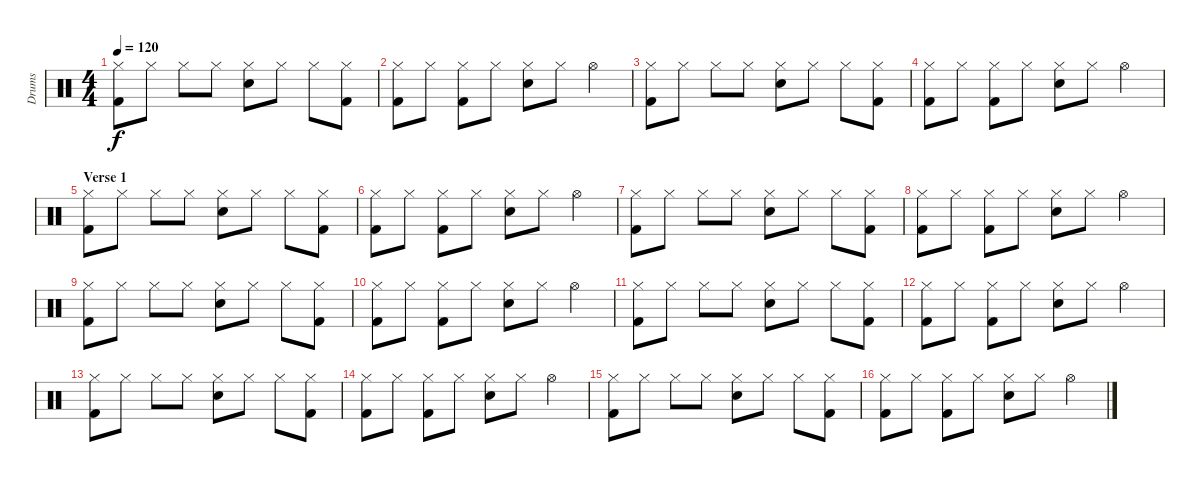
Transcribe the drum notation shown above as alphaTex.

\track ("Drums" "Drums") {instrument percussion}
\staff {score}
\articulation defaults
\ts (4 4)
\tempo 120
\clef neutral
\ks c
("Hi-Hat (closed)" "Kick (hit) 2").8{dy f} "Hi-Hat (closed)".8 "Hi-Hat (closed)".8 "Hi-Hat (closed)".8 ("Hi-Hat (closed)" "Electric Snare (hit)").8 "Hi-Hat (closed)".8 "Hi-Hat (closed)".8 ("Hi-Hat (closed)" "Kick (hit) 2").8 |
("Hi-Hat (closed)" "Kick (hit) 2").8 "Hi-Hat (closed)".8 ("Hi-Hat (closed)" "Kick (hit) 2").8 "Hi-Hat (closed)".8 ("Hi-Hat (closed)" "Electric Snare (hit)").8 "Hi-Hat (closed)".8 "Hi-Hat (open)".4 |
("Hi-Hat (closed)" "Kick (hit) 2").8 "Hi-Hat (closed)".8 "Hi-Hat (closed)".8 "Hi-Hat (closed)".8 ("Hi-Hat (closed)" "Electric Snare (hit)").8 "Hi-Hat (closed)".8 "Hi-Hat (closed)".8 ("Hi-Hat (closed)" "Kick (hit) 2").8 |
("Hi-Hat (closed)" "Kick (hit) 2").8 "Hi-Hat (closed)".8 ("Hi-Hat (closed)" "Kick (hit) 2").8 "Hi-Hat (closed)".8 ("Hi-Hat (closed)" "Electric Snare (hit)").8 "Hi-Hat (closed)".8 "Hi-Hat (open)".4 |
\section ("" "Verse 1")
("Hi-Hat (closed)" "Kick (hit) 2").8 "Hi-Hat (closed)".8 "Hi-Hat (closed)".8 "Hi-Hat (closed)".8 ("Hi-Hat (closed)" "Electric Snare (hit)").8 "Hi-Hat (closed)".8 "Hi-Hat (closed)".8 ("Hi-Hat (closed)" "Kick (hit) 2").8 |
("Hi-Hat (closed)" "Kick (hit) 2").8 "Hi-Hat (closed)".8 ("Hi-Hat (closed)" "Kick (hit) 2").8 "Hi-Hat (closed)".8 ("Hi-Hat (closed)" "Electric Snare (hit)").8 "Hi-Hat (closed)".8 "Hi-Hat (open)".4 |
("Hi-Hat (closed)" "Kick (hit) 2").8 "Hi-Hat (closed)".8 "Hi-Hat (closed)".8 "Hi-Hat (closed)".8 ("Hi-Hat (closed)" "Electric Snare (hit)").8 "Hi-Hat (closed)".8 "Hi-Hat (closed)".8 ("Hi-Hat (closed)" "Kick (hit) 2").8 |
("Hi-Hat (closed)" "Kick (hit) 2").8 "Hi-Hat (closed)".8 ("Hi-Hat (closed)" "Kick (hit) 2").8 "Hi-Hat (closed)".8 ("Hi-Hat (closed)" "Electric Snare (hit)").8 "Hi-Hat (closed)".8 "Hi-Hat (open)".4 |
("Hi-Hat (closed)" "Kick (hit) 2").8 "Hi-Hat (closed)".8 "Hi-Hat (closed)".8 "Hi-Hat (closed)".8 ("Hi-Hat (closed)" "Electric Snare (hit)").8 "Hi-Hat (closed)".8 "Hi-Hat (closed)".8 ("Hi-Hat (closed)" "Kick (hit) 2").8 |
("Hi-Hat (closed)" "Kick (hit) 2").8 "Hi-Hat (closed)".8 ("Hi-Hat (closed)" "Kick (hit) 2").8 "Hi-Hat (closed)".8 ("Hi-Hat (closed)" "Electric Snare (hit)").8 "Hi-Hat (closed)".8 "Hi-Hat (open)".4 |
("Hi-Hat (closed)" "Kick (hit) 2").8 "Hi-Hat (closed)".8 "Hi-Hat (closed)".8 "Hi-Hat (closed)".8 ("Hi-Hat (closed)" "Electric Snare (hit)").8 "Hi-Hat (closed)".8 "Hi-Hat (closed)".8 ("Hi-Hat (closed)" "Kick (hit) 2").8 |
("Hi-Hat (closed)" "Kick (hit) 2").8 "Hi-Hat (closed)".8 ("Hi-Hat (closed)" "Kick (hit) 2").8 "Hi-Hat (closed)".8 ("Hi-Hat (closed)" "Electric Snare (hit)").8 "Hi-Hat (closed)".8 "Hi-Hat (open)".4 |
("Hi-Hat (closed)" "Kick (hit) 2").8 "Hi-Hat (closed)".8 "Hi-Hat (closed)".8 "Hi-Hat (closed)".8 ("Hi-Hat (closed)" "Electric Snare (hit)").8 "Hi-Hat (closed)".8 "Hi-Hat (closed)".8 ("Hi-Hat (closed)" "Kick (hit) 2").8 |
("Hi-Hat (closed)" "Kick (hit) 2").8 "Hi-Hat (closed)".8 ("Hi-Hat (closed)" "Kick (hit) 2").8 "Hi-Hat (closed)".8 ("Hi-Hat (closed)" "Electric Snare (hit)").8 "Hi-Hat (closed)".8 "Hi-Hat (open)".4 |
("Hi-Hat (closed)" "Kick (hit) 2").8 "Hi-Hat (closed)".8 "Hi-Hat (closed)".8 "Hi-Hat (closed)".8 ("Hi-Hat (closed)" "Electric Snare (hit)").8 "Hi-Hat (closed)".8 "Hi-Hat (closed)".8 ("Hi-Hat (closed)" "Kick (hit) 2").8 |
("Hi-Hat (closed)" "Kick (hit) 2").8 "Hi-Hat (closed)".8 ("Hi-Hat (closed)" "Kick (hit) 2").8 "Hi-Hat (closed)".8 ("Hi-Hat (closed)" "Electric Snare (hit)").8 "Hi-Hat (closed)".8 "Hi-Hat (open)".4
